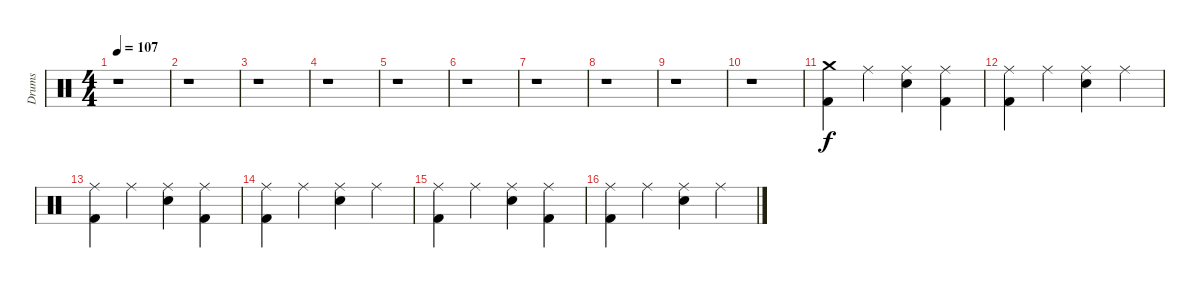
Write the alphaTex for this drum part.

\track ("Drums" "Drums") {instrument percussion}
\staff {score}
\articulation defaults
\ts (4 4)
\tempo 107
\clef neutral
\ks c
r.1{dy f} |
r.1 |
r.1 |
r.1 |
r.1 |
r.1 |
r.1 |
r.1 |
r.1 |
r.1 |
("Crash medium (hit)" "Kick (hit) 2").4 "Ride (middle)".4 ("Ride (middle)" "Electric Snare (hit)").4 ("Ride (middle)" "Kick (hit) 2").4 |
("Ride (middle)" "Kick (hit) 2").4 "Ride (middle)".4 ("Ride (middle)" "Electric Snare (hit)").4 "Ride (middle)".4 |
("Ride (middle)" "Kick (hit) 2").4 "Ride (middle)".4 ("Ride (middle)" "Electric Snare (hit)").4 ("Ride (middle)" "Kick (hit) 2").4 |
("Ride (middle)" "Kick (hit) 2").4 "Ride (middle)".4 ("Ride (middle)" "Electric Snare (hit)").4 "Ride (middle)".4 |
("Ride (middle)" "Kick (hit) 2").4 "Ride (middle)".4 ("Ride (middle)" "Electric Snare (hit)").4 ("Ride (middle)" "Kick (hit) 2").4 |
("Ride (middle)" "Kick (hit) 2").4 "Ride (middle)".4 ("Ride (middle)" "Electric Snare (hit)").4 "Ride (middle)".4
